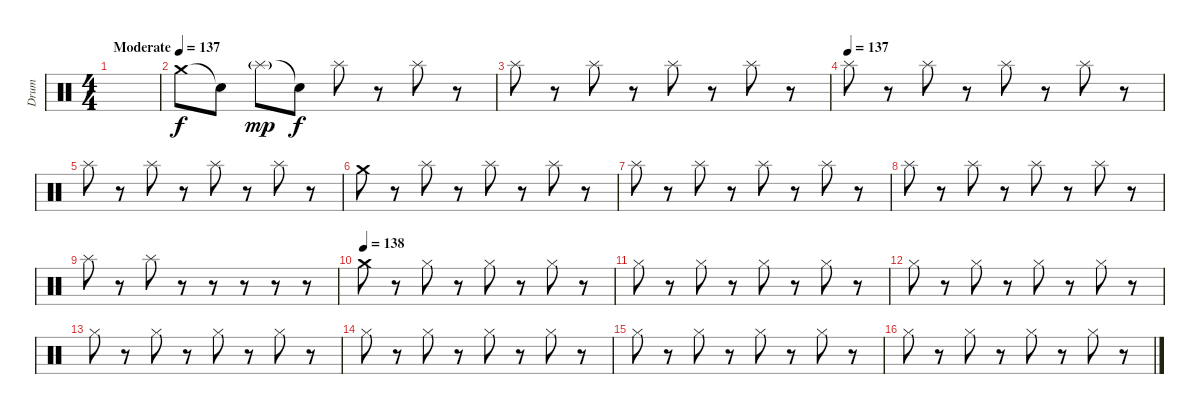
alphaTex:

\track ("Drum" "Drum") {instrument percussion}
\staff {score}
\articulation defaults
\ts (4 4)
\tempo (137 "Moderate")
\tempo 140
\tempo (137 "Moderate")
\clef neutral
\ks c
|
"Crash medium (hit)".8 "Snare (hit)"{t}.8 "Splash (hit)"{g}.8{dy mp} "Snare (hit)"{t}.8{dy f} "Splash (hit)".8 r.8 "Splash (hit)".8 r.8 |
"Splash (hit)".8 r.8 "Splash (hit)".8 r.8 "Splash (hit)".8 r.8 "Splash (hit)".8 r.8 |
\tempo (137)
"Splash (hit)".8 r.8 "Splash (hit)".8 r.8 "Splash (hit)".8 r.8 "Splash (hit)".8 r.8 |
"Splash (hit)".8 r.8 "Splash (hit)".8 r.8 "Splash (hit)".8 r.8 "Splash (hit)".8 r.8 |
"Crash medium (hit)".8 r.8 "Splash (hit)".8 r.8 "Splash (hit)".8 r.8 "Splash (hit)".8 r.8 |
"Splash (hit)".8 r.8 "Splash (hit)".8 r.8 "Splash (hit)".8 r.8 "Splash (hit)".8 r.8 |
"Splash (hit)".8 r.8 "Splash (hit)".8 r.8 "Splash (hit)".8 r.8 "Splash (hit)".8 r.8 |
"Splash (hit)".8 r.8 "Splash (hit)".8 r.8 r.8 r.8 r.8 r.8 |
\tempo (138)
"Crash medium (hit)".8 r.8 "Hi-Hat (closed)".8 r.8 "Hi-Hat (closed)".8 r.8 "Hi-Hat (closed)".8 r.8 |
"Hi-Hat (closed)".8 r.8 "Hi-Hat (closed)".8 r.8 "Hi-Hat (closed)".8 r.8 "Hi-Hat (closed)".8 r.8 |
"Hi-Hat (closed)".8 r.8 "Hi-Hat (closed)".8 r.8 "Hi-Hat (closed)".8 r.8 "Hi-Hat (closed)".8 r.8 |
"Hi-Hat (closed)".8 r.8 "Hi-Hat (closed)".8 r.8 "Hi-Hat (closed)".8 r.8 "Hi-Hat (closed)".8 r.8 |
"Hi-Hat (closed)".8 r.8 "Hi-Hat (closed)".8 r.8 "Hi-Hat (closed)".8 r.8 "Hi-Hat (closed)".8 r.8 |
"Hi-Hat (closed)".8 r.8 "Hi-Hat (closed)".8 r.8 "Hi-Hat (closed)".8 r.8 "Hi-Hat (closed)".8 r.8 |
"Hi-Hat (closed)".8 r.8 "Hi-Hat (closed)".8 r.8 "Hi-Hat (closed)".8 r.8 "Hi-Hat (closed)".8 r.8
